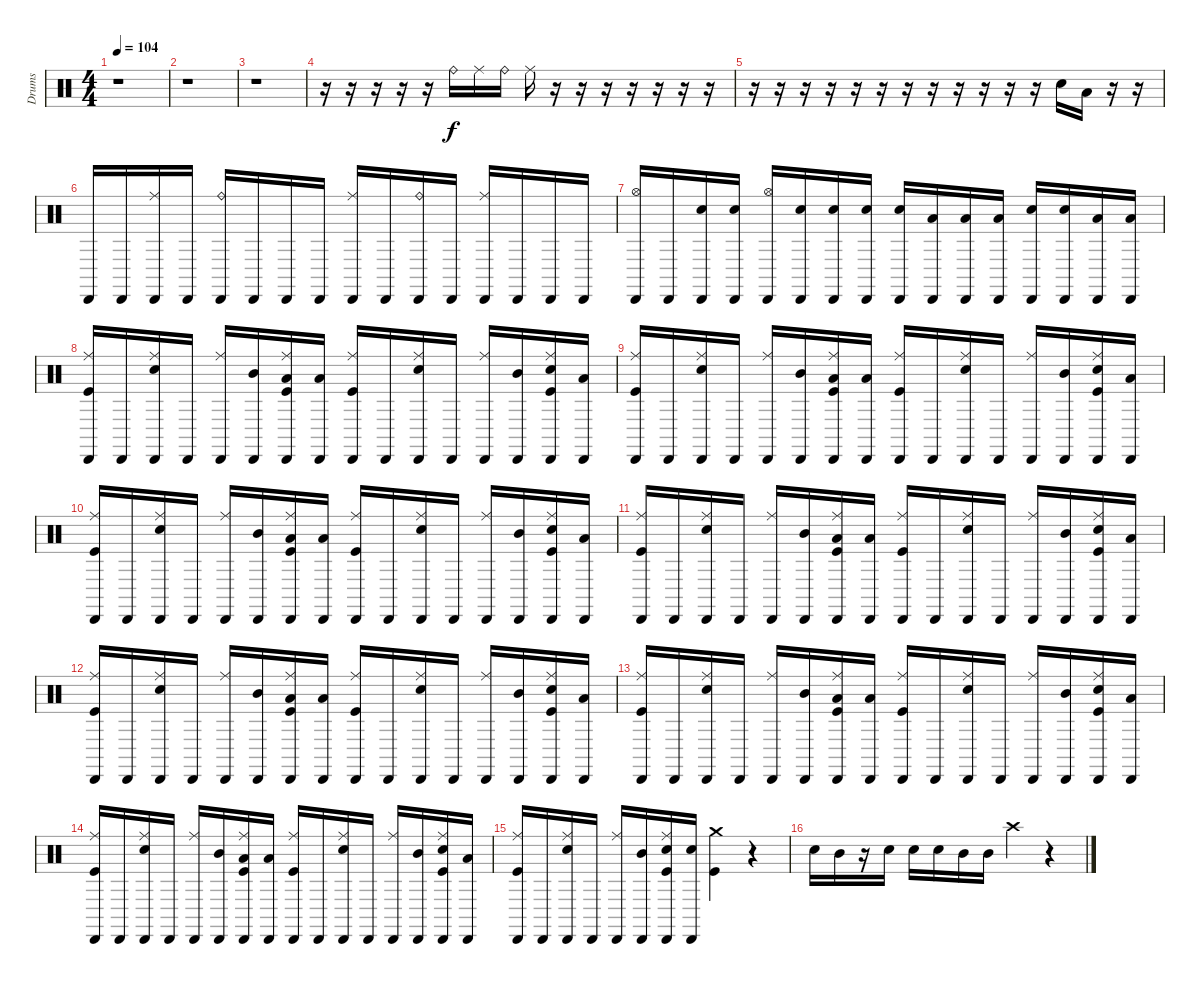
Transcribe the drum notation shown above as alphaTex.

\track ("Drums" "Drums") {instrument percussion}
\staff {score}
\articulation defaults
\ts (4 4)
\tempo 104
\clef neutral
\ks c
r.1{dy f} |
r.1 |
r.1 |
r.16 r.16 r.16 r.16 r.16 "Ride (bell)".16 "Ride (middle)".16 "Ride (bell)".16 "Ride (middle)".16 r.16 r.16 r.16 r.16 r.16 r.16 r.16 |
r.16 r.16 r.16 r.16 r.16 r.16 r.16 r.16 r.16 r.16 r.16 r.16 "Electric Snare (hit)".16 "Low Tom (hit)".16 r.16 r.16 |
"Cabasa (hit)".16 "Cabasa (hit)".16 ("Cabasa (hit)" "Ride (middle)").16 "Cabasa (hit)".16 ("Cabasa (hit)" "Ride (bell)").16 "Cabasa (hit)".16 "Cabasa (hit)".16 "Cabasa (hit)".16 ("Cabasa (hit)" "Ride (middle)").16 "Cabasa (hit)".16 ("Cabasa (hit)" "Ride (bell)").16 "Cabasa (hit)".16 ("Cabasa (hit)" "Ride (middle)").16 "Cabasa (hit)".16 "Cabasa (hit)".16 "Cabasa (hit)".16 |
("Cabasa (hit)" "Hi-Hat (open)").16 "Cabasa (hit)".16 ("Cabasa (hit)" "Electric Snare (hit)").16 ("Cabasa (hit)" "Electric Snare (hit)").16 ("Cabasa (hit)" "Hi-Hat (open)").16 ("Cabasa (hit)" "Electric Snare (hit)").16 ("Cabasa (hit)" "Electric Snare (hit)").16 ("Cabasa (hit)" "Electric Snare (hit)").16 ("Cabasa (hit)" "Electric Snare (hit)").16 ("Cabasa (hit)" "Low Tom (hit)").16 ("Cabasa (hit)" "Low Tom (hit)").16 ("Cabasa (hit)" "Low Tom (hit)").16 ("Cabasa (hit)" "Electric Snare (hit)").16 ("Cabasa (hit)" "Electric Snare (hit)").16 ("Cabasa (hit)" "Low Tom (hit)").16 ("Cabasa (hit)" "Low Tom (hit)").16 |
("Cabasa (hit)" "Ride (middle)" "Kick (hit)").16 "Cabasa (hit)".16 ("Cabasa (hit)" "Ride (middle)" "Electric Snare (hit)").16 "Cabasa (hit)".16 ("Cabasa (hit)" "Ride (middle)").16 ("Cabasa (hit)" "Mid Tom (hit)").16 ("Cabasa (hit)" "Ride (middle)" "Low Tom (hit)" "Kick (hit)").16 ("Cabasa (hit)" "Low Tom (hit)").16 ("Cabasa (hit)" "Ride (middle)" "Kick (hit)").16 "Cabasa (hit)".16 ("Cabasa (hit)" "Ride (middle)" "Electric Snare (hit)").16 "Cabasa (hit)".16 ("Cabasa (hit)" "Ride (middle)").16 ("Cabasa (hit)" "Mid Tom (hit)").16 ("Cabasa (hit)" "Ride (middle)" "Electric Snare (hit)" "Kick (hit)").16 ("Cabasa (hit)" "Low Tom (hit)").16 |
("Cabasa (hit)" "Ride (middle)" "Kick (hit)").16 "Cabasa (hit)".16 ("Cabasa (hit)" "Ride (middle)" "Electric Snare (hit)").16 "Cabasa (hit)".16 ("Cabasa (hit)" "Ride (middle)").16 ("Cabasa (hit)" "Mid Tom (hit)").16 ("Cabasa (hit)" "Ride (middle)" "Low Tom (hit)" "Kick (hit)").16 ("Cabasa (hit)" "Low Tom (hit)").16 ("Cabasa (hit)" "Ride (middle)" "Kick (hit)").16 "Cabasa (hit)".16 ("Cabasa (hit)" "Ride (middle)" "Electric Snare (hit)").16 "Cabasa (hit)".16 ("Cabasa (hit)" "Ride (middle)").16 ("Cabasa (hit)" "Mid Tom (hit)").16 ("Cabasa (hit)" "Ride (middle)" "Electric Snare (hit)" "Kick (hit)").16 ("Cabasa (hit)" "Low Tom (hit)").16 |
("Cabasa (hit)" "Ride (middle)" "Kick (hit)").16 "Cabasa (hit)".16 ("Cabasa (hit)" "Ride (middle)" "Electric Snare (hit)").16 "Cabasa (hit)".16 ("Cabasa (hit)" "Ride (middle)").16 ("Cabasa (hit)" "Mid Tom (hit)").16 ("Cabasa (hit)" "Ride (middle)" "Low Tom (hit)" "Kick (hit)").16 ("Cabasa (hit)" "Low Tom (hit)").16 ("Cabasa (hit)" "Ride (middle)" "Kick (hit)").16 "Cabasa (hit)".16 ("Cabasa (hit)" "Ride (middle)" "Electric Snare (hit)").16 "Cabasa (hit)".16 ("Cabasa (hit)" "Ride (middle)").16 ("Cabasa (hit)" "Mid Tom (hit)").16 ("Cabasa (hit)" "Ride (middle)" "Electric Snare (hit)" "Kick (hit)").16 ("Cabasa (hit)" "Low Tom (hit)").16 |
("Cabasa (hit)" "Ride (middle)" "Kick (hit)").16 "Cabasa (hit)".16 ("Cabasa (hit)" "Ride (middle)" "Electric Snare (hit)").16 "Cabasa (hit)".16 ("Cabasa (hit)" "Ride (middle)").16 ("Cabasa (hit)" "Mid Tom (hit)").16 ("Cabasa (hit)" "Ride (middle)" "Low Tom (hit)" "Kick (hit)").16 ("Cabasa (hit)" "Low Tom (hit)").16 ("Cabasa (hit)" "Ride (middle)" "Kick (hit)").16 "Cabasa (hit)".16 ("Cabasa (hit)" "Ride (middle)" "Electric Snare (hit)").16 "Cabasa (hit)".16 ("Cabasa (hit)" "Ride (middle)").16 ("Cabasa (hit)" "Mid Tom (hit)").16 ("Cabasa (hit)" "Ride (middle)" "Electric Snare (hit)" "Kick (hit)").16 ("Cabasa (hit)" "Low Tom (hit)").16 |
("Cabasa (hit)" "Ride (middle)" "Kick (hit)").16 "Cabasa (hit)".16 ("Cabasa (hit)" "Ride (middle)" "Electric Snare (hit)").16 "Cabasa (hit)".16 ("Cabasa (hit)" "Ride (middle)").16 ("Cabasa (hit)" "Mid Tom (hit)").16 ("Cabasa (hit)" "Ride (middle)" "Low Tom (hit)" "Kick (hit)").16 ("Cabasa (hit)" "Low Tom (hit)").16 ("Cabasa (hit)" "Ride (middle)" "Kick (hit)").16 "Cabasa (hit)".16 ("Cabasa (hit)" "Ride (middle)" "Electric Snare (hit)").16 "Cabasa (hit)".16 ("Cabasa (hit)" "Ride (middle)").16 ("Cabasa (hit)" "Mid Tom (hit)").16 ("Cabasa (hit)" "Ride (middle)" "Electric Snare (hit)" "Kick (hit)").16 ("Cabasa (hit)" "Low Tom (hit)").16 |
("Cabasa (hit)" "Ride (middle)" "Kick (hit)").16 "Cabasa (hit)".16 ("Cabasa (hit)" "Ride (middle)" "Electric Snare (hit)").16 "Cabasa (hit)".16 ("Cabasa (hit)" "Ride (middle)").16 ("Cabasa (hit)" "Mid Tom (hit)").16 ("Cabasa (hit)" "Ride (middle)" "Low Tom (hit)" "Kick (hit)").16 ("Cabasa (hit)" "Low Tom (hit)").16 ("Cabasa (hit)" "Ride (middle)" "Kick (hit)").16 "Cabasa (hit)".16 ("Cabasa (hit)" "Ride (middle)" "Electric Snare (hit)").16 "Cabasa (hit)".16 ("Cabasa (hit)" "Ride (middle)").16 ("Cabasa (hit)" "Mid Tom (hit)").16 ("Cabasa (hit)" "Ride (middle)" "Electric Snare (hit)" "Kick (hit)").16 ("Cabasa (hit)" "Low Tom (hit)").16 |
("Cabasa (hit)" "Ride (middle)" "Kick (hit)").16 "Cabasa (hit)".16 ("Cabasa (hit)" "Ride (middle)" "Electric Snare (hit)").16 "Cabasa (hit)".16 ("Cabasa (hit)" "Ride (middle)").16 ("Cabasa (hit)" "Mid Tom (hit)").16 ("Cabasa (hit)" "Ride (middle)" "Low Tom (hit)" "Kick (hit)").16 ("Cabasa (hit)" "Low Tom (hit)").16 ("Cabasa (hit)" "Ride (middle)" "Kick (hit)").16 "Cabasa (hit)".16 ("Cabasa (hit)" "Ride (middle)" "Electric Snare (hit)").16 "Cabasa (hit)".16 ("Cabasa (hit)" "Ride (middle)").16 ("Cabasa (hit)" "Mid Tom (hit)").16 ("Cabasa (hit)" "Ride (middle)" "Electric Snare (hit)" "Kick (hit)").16 ("Cabasa (hit)" "Low Tom (hit)").16 |
("Cabasa (hit)" "Ride (middle)" "Kick (hit)").16 "Cabasa (hit)".16 ("Cabasa (hit)" "Ride (middle)" "Electric Snare (hit)").16 "Cabasa (hit)".16 ("Cabasa (hit)" "Ride (middle)").16 ("Cabasa (hit)" "Mid Tom (hit)").16 ("Cabasa (hit)" "Ride (middle)" "Electric Snare (hit)" "Kick (hit)").16 ("Cabasa (hit)" "Electric Snare (hit)").16 ("Crash medium (hit)" "Kick (hit)").4 r.4 |
"Electric Snare (hit)".16 "Mid Tom (hit)".16 r.16 "Electric Snare (hit)".16 "Electric Snare (hit)".16 "Electric Snare (hit)".16 "Mid Tom (hit)".16 "Mid Tom (hit)".16 "Crash high (hit)".4 r.4
